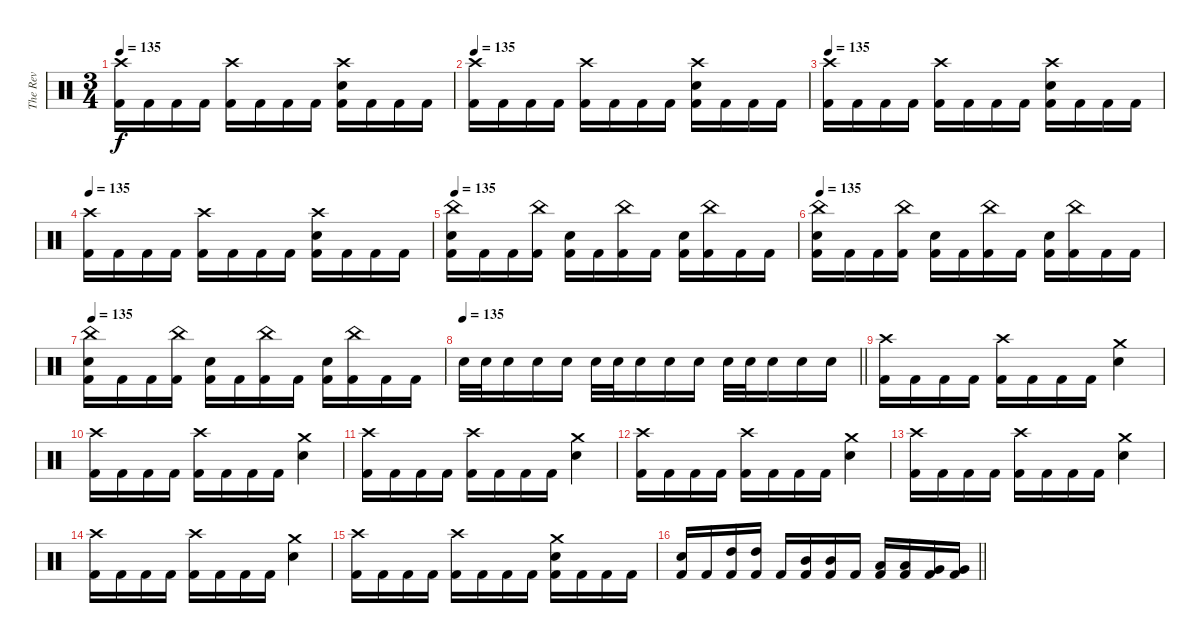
\track ("The Rev" "The Rev") {instrument percussion}
\staff {score}
\articulation defaults
\ts (3 4)
\tempo 135
\clef neutral
\ks c
("Crash high (hit)" "Kick (hit) 2").16{dy f} "Kick (hit) 2".16 "Kick (hit) 2".16 "Kick (hit) 2".16 ("Crash high (hit)" "Kick (hit) 2").16 "Kick (hit) 2".16 "Kick (hit) 2".16 "Kick (hit) 2".16 ("Crash high (hit)" "Electric Snare (hit)" "Kick (hit) 2").16 "Kick (hit) 2".16 "Kick (hit) 2".16 "Kick (hit) 2".16 |
\tempo 135
("Crash high (hit)" "Kick (hit) 2").16 "Kick (hit) 2".16 "Kick (hit) 2".16 "Kick (hit) 2".16 ("Crash high (hit)" "Kick (hit) 2").16 "Kick (hit) 2".16 "Kick (hit) 2".16 "Kick (hit) 2".16 ("Crash high (hit)" "Electric Snare (hit)" "Kick (hit) 2").16 "Kick (hit) 2".16 "Kick (hit) 2".16 "Kick (hit) 2".16 |
\tempo 135
("Crash high (hit)" "Kick (hit) 2").16 "Kick (hit) 2".16 "Kick (hit) 2".16 "Kick (hit) 2".16 ("Crash high (hit)" "Kick (hit) 2").16 "Kick (hit) 2".16 "Kick (hit) 2".16 "Kick (hit) 2".16 ("Crash high (hit)" "Electric Snare (hit)" "Kick (hit) 2").16 "Kick (hit) 2".16 "Kick (hit) 2".16 "Kick (hit) 2".16 |
\tempo 135
("Crash high (hit)" "Kick (hit) 2").16 "Kick (hit) 2".16 "Kick (hit) 2".16 "Kick (hit) 2".16 ("Crash high (hit)" "Kick (hit) 2").16 "Kick (hit) 2".16 "Kick (hit) 2".16 "Kick (hit) 2".16 ("Crash high (hit)" "Electric Snare (hit)" "Kick (hit) 2").16 "Kick (hit) 2".16 "Kick (hit) 2".16 "Kick (hit) 2".16 |
\tempo 135
("China (hit)" "Electric Snare (hit)" "Kick (hit) 2").16 "Kick (hit) 2".16 "Kick (hit) 2".16 ("China (hit)" "Kick (hit) 2").16 ("Electric Snare (hit)" "Kick (hit) 2").16 "Kick (hit) 2".16 ("China (hit)" "Kick (hit) 2").16 "Kick (hit) 2".16 ("Electric Snare (hit)" "Kick (hit) 2").16 ("China (hit)" "Kick (hit) 2").16 "Kick (hit) 2".16 "Kick (hit) 2".16 |
\tempo 135
("China (hit)" "Electric Snare (hit)" "Kick (hit) 2").16 "Kick (hit) 2".16 "Kick (hit) 2".16 ("China (hit)" "Kick (hit) 2").16 ("Electric Snare (hit)" "Kick (hit) 2").16 "Kick (hit) 2".16 ("China (hit)" "Kick (hit) 2").16 "Kick (hit) 2".16 ("Electric Snare (hit)" "Kick (hit) 2").16 ("China (hit)" "Kick (hit) 2").16 "Kick (hit) 2".16 "Kick (hit) 2".16 |
\tempo 135
("China (hit)" "Electric Snare (hit)" "Kick (hit) 2").16 "Kick (hit) 2".16 "Kick (hit) 2".16 ("China (hit)" "Kick (hit) 2").16 ("Electric Snare (hit)" "Kick (hit) 2").16 "Kick (hit) 2".16 ("China (hit)" "Kick (hit) 2").16 "Kick (hit) 2".16 ("Electric Snare (hit)" "Kick (hit) 2").16 ("China (hit)" "Kick (hit) 2").16 "Kick (hit) 2".16 "Kick (hit) 2".16 |
\tempo 135
\barLineRight lightlight "Electric Snare (hit)".32 "Electric Snare (hit)".32 "Electric Snare (hit)".16 "Electric Snare (hit)".16 "Electric Snare (hit)".16 "Electric Snare (hit)".32 "Electric Snare (hit)".32 "Electric Snare (hit)".16 "Electric Snare (hit)".16 "Electric Snare (hit)".16 "Electric Snare (hit)".32 "Electric Snare (hit)".32 "Electric Snare (hit)".16 "Electric Snare (hit)".16 "Electric Snare (hit)".16
|
("Crash high (hit)" "Kick (hit) 2").16 "Kick (hit) 2".16 "Kick (hit) 2".16 "Kick (hit) 2".16 ("Crash high (hit)" "Kick (hit) 2").16 "Kick (hit) 2".16 "Kick (hit) 2".16 "Kick (hit) 2".16 ("Crash medium (hit)" "Electric Snare (hit)").4 |
("Crash high (hit)" "Kick (hit) 2").16 "Kick (hit) 2".16 "Kick (hit) 2".16 "Kick (hit) 2".16 ("Crash high (hit)" "Kick (hit) 2").16 "Kick (hit) 2".16 "Kick (hit) 2".16 "Kick (hit) 2".16 ("Crash medium (hit)" "Electric Snare (hit)").4 |
("Crash high (hit)" "Kick (hit) 2").16 "Kick (hit) 2".16 "Kick (hit) 2".16 "Kick (hit) 2".16 ("Crash high (hit)" "Kick (hit) 2").16 "Kick (hit) 2".16 "Kick (hit) 2".16 "Kick (hit) 2".16 ("Crash medium (hit)" "Electric Snare (hit)").4 |
("Crash high (hit)" "Kick (hit) 2").16 "Kick (hit) 2".16 "Kick (hit) 2".16 "Kick (hit) 2".16 ("Crash high (hit)" "Kick (hit) 2").16 "Kick (hit) 2".16 "Kick (hit) 2".16 "Kick (hit) 2".16 ("Crash medium (hit)" "Electric Snare (hit)").4 |
("Crash high (hit)" "Kick (hit) 2").16 "Kick (hit) 2".16 "Kick (hit) 2".16 "Kick (hit) 2".16 ("Crash high (hit)" "Kick (hit) 2").16 "Kick (hit) 2".16 "Kick (hit) 2".16 "Kick (hit) 2".16 ("Crash medium (hit)" "Electric Snare (hit)").4 |
("Crash high (hit)" "Kick (hit) 2").16 "Kick (hit) 2".16 "Kick (hit) 2".16 "Kick (hit) 2".16 ("Crash high (hit)" "Kick (hit) 2").16 "Kick (hit) 2".16 "Kick (hit) 2".16 "Kick (hit) 2".16 ("Crash medium (hit)" "Electric Snare (hit)").4 |
("Crash high (hit)" "Kick (hit) 2").16 "Kick (hit) 2".16 "Kick (hit) 2".16 "Kick (hit) 2".16 ("Crash high (hit)" "Kick (hit) 2").16 "Kick (hit) 2".16 "Kick (hit) 2".16 "Kick (hit) 2".16 ("Crash medium (hit)" "Electric Snare (hit)" "Kick (hit) 2").16 "Kick (hit) 2".16 "Kick (hit) 2".16 "Kick (hit) 2".16 |
\barLineRight lightlight
("Electric Snare (hit)" "Kick (hit) 2").16 "Kick (hit) 2".16 ("High Tom (hit)" "Kick (hit) 2").16 ("High Tom (hit)" "Kick (hit) 2").16 "Kick (hit) 2".16 ("Mid Tom (hit)" "Kick (hit) 2").16 ("Mid Tom (hit)" "Kick (hit) 2").16 "Kick (hit) 2".16 ("Low Tom (hit)" "Kick (hit) 2").16 ("Low Tom (hit)" "Kick (hit) 2").16 ("Very Low Tom (hit)" "Kick (hit) 2").16 ("Very Low Tom (hit)" "Kick (hit) 2").16
